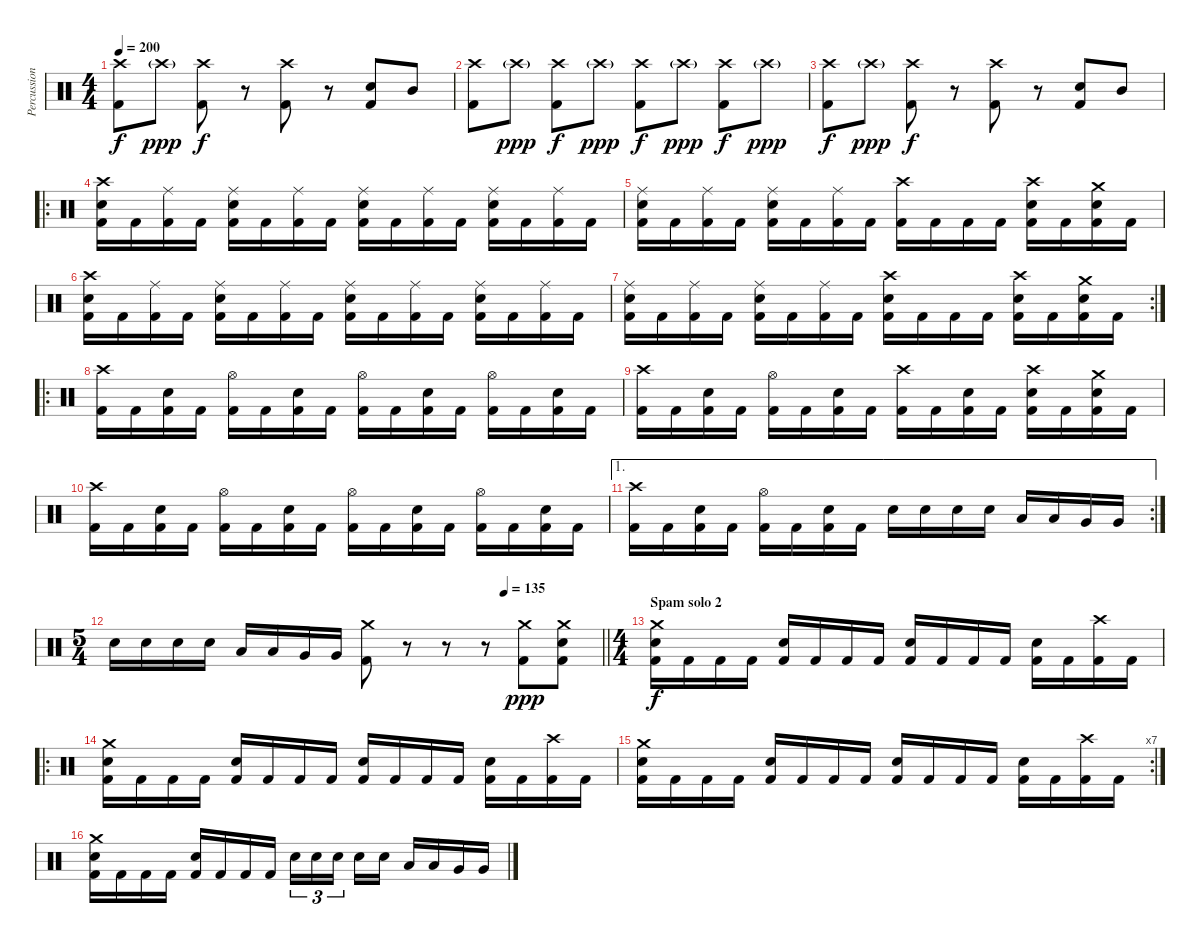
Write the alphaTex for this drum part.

\track ("Percussion" "Percussion") {instrument percussion}
\staff {score}
\articulation defaults
\ts (4 4)
\tempo 200
\clef neutral
\ks c
("Crash high (hit)" "Kick (hit) 2").8{dy f} "Crash high (hit)"{g}.8{dy ppp} ("Crash high (hit)" "Kick (hit) 2").8{dy f} r.8 ("Crash high (hit)" "Kick (hit) 2").8 r.8 ("Snare (hit) 2" "Kick (hit) 2").8 "Mid Tom (hit)".8 |
("Crash high (hit)" "Kick (hit) 2").8 "Crash high (hit)"{g}.8{dy ppp} ("Crash high (hit)" "Kick (hit) 2").8{dy f} "Crash high (hit)"{g}.8{dy ppp} ("Crash high (hit)" "Kick (hit) 2").8{dy f} "Crash high (hit)"{g}.8{dy ppp} ("Crash high (hit)" "Kick (hit) 2").8{dy f} "Crash high (hit)"{g}.8{dy ppp} |
("Crash high (hit)" "Kick (hit) 2").8{dy f} "Crash high (hit)"{g}.8{dy ppp} ("Crash high (hit)" "Kick (hit) 2").8{dy f} r.8 ("Crash high (hit)" "Kick (hit) 2").8 r.8 ("Snare (hit) 2" "Kick (hit) 2").8 "Mid Tom (hit)".8 |
\ro
("Crash high (hit)" "Electric Snare (hit)" "Kick (hit) 2").16 "Kick (hit) 2".16 ("Ride (middle)" "Kick (hit) 2").16 "Kick (hit) 2".16 ("Ride (middle)" "Electric Snare (hit)" "Kick (hit) 2").16 "Kick (hit) 2".16 ("Ride (middle)" "Kick (hit) 2").16 "Kick (hit) 2".16 ("Ride (middle)" "Electric Snare (hit)" "Kick (hit) 2").16 "Kick (hit) 2".16 ("Ride (middle)" "Kick (hit) 2").16 "Kick (hit) 2".16 ("Ride (middle)" "Electric Snare (hit)" "Kick (hit) 2").16 "Kick (hit) 2".16 ("Ride (middle)" "Kick (hit) 2").16 "Kick (hit) 2".16 |
("Ride (middle)" "Electric Snare (hit)" "Kick (hit) 2").16 "Kick (hit) 2".16 ("Ride (middle)" "Kick (hit) 2").16 "Kick (hit) 2".16 ("Ride (middle)" "Electric Snare (hit)" "Kick (hit) 2").16 "Kick (hit) 2".16 ("Ride (middle)" "Kick (hit) 2").16 "Kick (hit) 2".16 ("Crash high (hit)" "Kick (hit) 2").16 "Kick (hit) 2".16 "Kick (hit) 2".16 "Kick (hit) 2".16 ("Crash high (hit)" "Electric Snare (hit)" "Kick (hit) 2").16 "Kick (hit) 2".16 ("Crash medium (hit)" "Electric Snare (hit)" "Kick (hit) 2").16 "Kick (hit) 2".16 |
("Crash high (hit)" "Electric Snare (hit)" "Kick (hit) 2").16 "Kick (hit) 2".16 ("Ride (middle)" "Kick (hit) 2").16 "Kick (hit) 2".16 ("Ride (middle)" "Electric Snare (hit)" "Kick (hit) 2").16 "Kick (hit) 2".16 ("Ride (middle)" "Kick (hit) 2").16 "Kick (hit) 2".16 ("Ride (middle)" "Electric Snare (hit)" "Kick (hit) 2").16 "Kick (hit) 2".16 ("Ride (middle)" "Kick (hit) 2").16 "Kick (hit) 2".16 ("Ride (middle)" "Electric Snare (hit)" "Kick (hit) 2").16 "Kick (hit) 2".16 ("Ride (middle)" "Kick (hit) 2").16 "Kick (hit) 2".16 |
\rc 2
("Ride (middle)" "Electric Snare (hit)" "Kick (hit) 2").16 "Kick (hit) 2".16 ("Ride (middle)" "Kick (hit) 2").16 "Kick (hit) 2".16 ("Ride (middle)" "Electric Snare (hit)" "Kick (hit) 2").16 "Kick (hit) 2".16 ("Ride (middle)" "Kick (hit) 2").16 "Kick (hit) 2".16 ("Crash high (hit)" "Electric Snare (hit)" "Kick (hit) 2").16 "Kick (hit) 2".16 "Kick (hit) 2".16 "Kick (hit) 2".16 ("Crash high (hit)" "Electric Snare (hit)" "Kick (hit) 2").16 "Kick (hit) 2".16 ("Crash medium (hit)" "Electric Snare (hit)" "Kick (hit) 2").16 "Kick (hit) 2".16 |
\ro
("Crash high (hit)" "Kick (hit) 2").16 "Kick (hit) 2".16 ("Electric Snare (hit)" "Kick (hit) 2").16 "Kick (hit) 2".16 ("Hi-Hat (open)" "Kick (hit) 2").16 "Kick (hit) 2".16 ("Electric Snare (hit)" "Kick (hit) 2").16 "Kick (hit) 2".16 ("Hi-Hat (open)" "Kick (hit) 2").16 "Kick (hit) 2".16 ("Electric Snare (hit)" "Kick (hit) 2").16 "Kick (hit) 2".16 ("Hi-Hat (open)" "Kick (hit) 2").16 "Kick (hit) 2".16 ("Electric Snare (hit)" "Kick (hit) 2").16 "Kick (hit) 2".16 |
("Crash high (hit)" "Kick (hit) 2").16 "Kick (hit) 2".16 ("Electric Snare (hit)" "Kick (hit) 2").16 "Kick (hit) 2".16 ("Hi-Hat (open)" "Kick (hit) 2").16 "Kick (hit) 2".16 ("Electric Snare (hit)" "Kick (hit) 2").16 "Kick (hit) 2".16 ("Crash high (hit)" "Kick (hit) 2").16 "Kick (hit) 2".16 ("Electric Snare (hit)" "Kick (hit) 2").16 "Kick (hit) 2".16 ("Crash high (hit)" "Electric Snare (hit)" "Kick (hit) 2").16 "Kick (hit) 2".16 ("Crash medium (hit)" "Electric Snare (hit)" "Kick (hit) 2").16 "Kick (hit) 2".16 |
("Crash high (hit)" "Kick (hit) 2").16 "Kick (hit) 2".16 ("Electric Snare (hit)" "Kick (hit) 2").16 "Kick (hit) 2".16 ("Hi-Hat (open)" "Kick (hit) 2").16 "Kick (hit) 2".16 ("Electric Snare (hit)" "Kick (hit) 2").16 "Kick (hit) 2".16 ("Hi-Hat (open)" "Kick (hit) 2").16 "Kick (hit) 2".16 ("Electric Snare (hit)" "Kick (hit) 2").16 "Kick (hit) 2".16 ("Hi-Hat (open)" "Kick (hit) 2").16 "Kick (hit) 2".16 ("Electric Snare (hit)" "Kick (hit) 2").16 "Kick (hit) 2".16 |
\ae 1
\rc 2
("Crash high (hit)" "Kick (hit) 2").16 "Kick (hit) 2".16 ("Electric Snare (hit)" "Kick (hit) 2").16 "Kick (hit) 2".16 ("Hi-Hat (open)" "Kick (hit) 2").16 "Kick (hit) 2".16 ("Electric Snare (hit)" "Kick (hit) 2").16 "Kick (hit) 2".16 "Snare (hit) 2".16 "Snare (hit) 2".16 "Snare (hit) 2".16 "Snare (hit) 2".16 "Low Tom (hit)".16 "Low Tom (hit)".16 "Very Low Tom (hit)".16 "Very Low Tom (hit)".16 |
\ts (5 4)
\tempo (135 0.8)
\barLineRight lightlight "Snare (hit) 2".16 "Snare (hit) 2".16 "Snare (hit) 2".16 "Snare (hit) 2".16 "Low Tom (hit)".16 "Low Tom (hit)".16 "Very Low Tom (hit)".16 "Very Low Tom (hit)".16
("Crash medium (hit)" "Kick (hit) 2").8 r.8 r.8 r.8 ("Crash medium (hit)" "Kick (hit) 2").8{dy ppp} ("Crash medium (hit)" "Snare (hit) 2" "Kick (hit) 2").8 |
\ts (4 4)
\section ("" "Spam solo 2")
("Crash medium (hit)" "Electric Snare (hit)" "Kick (hit) 2").16{dy f} "Kick (hit) 2".16 "Kick (hit) 2".16 "Kick (hit) 2".16 ("Electric Snare (hit)" "Kick (hit) 2").16 "Kick (hit) 2".16 "Kick (hit) 2".16 "Kick (hit) 2".16 ("Electric Snare (hit)" "Kick (hit) 2").16 "Kick (hit) 2".16 "Kick (hit) 2".16 "Kick (hit) 2".16 ("Electric Snare (hit)" "Kick (hit) 2").16 "Kick (hit) 2".16 ("Crash high (hit)" "Kick (hit) 2").16 "Kick (hit) 2".16 |
\ro
("Crash medium (hit)" "Electric Snare (hit)" "Kick (hit) 2").16 "Kick (hit) 2".16 "Kick (hit) 2".16 "Kick (hit) 2".16 ("Electric Snare (hit)" "Kick (hit) 2").16 "Kick (hit) 2".16 "Kick (hit) 2".16 "Kick (hit) 2".16 ("Electric Snare (hit)" "Kick (hit) 2").16 "Kick (hit) 2".16 "Kick (hit) 2".16 "Kick (hit) 2".16 ("Electric Snare (hit)" "Kick (hit) 2").16 "Kick (hit) 2".16 ("Crash high (hit)" "Kick (hit) 2").16 "Kick (hit) 2".16 |
\rc 7
("Crash medium (hit)" "Electric Snare (hit)" "Kick (hit) 2").16 "Kick (hit) 2".16 "Kick (hit) 2".16 "Kick (hit) 2".16 ("Electric Snare (hit)" "Kick (hit) 2").16 "Kick (hit) 2".16 "Kick (hit) 2".16 "Kick (hit) 2".16 ("Electric Snare (hit)" "Kick (hit) 2").16 "Kick (hit) 2".16 "Kick (hit) 2".16 "Kick (hit) 2".16 ("Electric Snare (hit)" "Kick (hit) 2").16 "Kick (hit) 2".16 ("Crash high (hit)" "Kick (hit) 2").16 "Kick (hit) 2".16 |
("Crash medium (hit)" "Electric Snare (hit)" "Kick (hit) 2").16 "Kick (hit) 2".16 "Kick (hit) 2".16 "Kick (hit) 2".16 ("Electric Snare (hit)" "Kick (hit) 2").16 "Kick (hit) 2".16 "Kick (hit) 2".16 "Kick (hit) 2".16 "Snare (hit) 2".16{tu (3 2)} "Snare (hit) 2".16{tu (3 2)} "Snare (hit) 2".16{tu (3 2)} "Snare (hit) 2".16 "Snare (hit) 2".16 "Low Tom (hit)".16 "Low Tom (hit)".16 "Very Low Tom (hit)".16 "Very Low Tom (hit)".16
